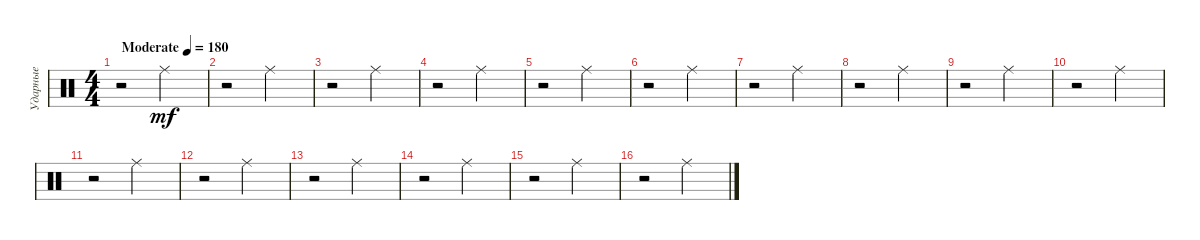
\track ("Ударные" "Ударные") {instrument percussion}
\staff {score}
\articulation defaults
\ts (4 4)
\tempo (180 "Moderate")
\clef neutral
\ks c
r.2{dy mf} "Ride (middle)".2 |
r.2 "Ride (middle)".2 |
r.2 "Ride (middle)".2 |
r.2 "Ride (middle)".2 |
r.2 "Ride (middle)".2 |
r.2 "Ride (middle)".2 |
r.2 "Ride (middle)".2 |
r.2 "Ride (middle)".2 |
r.2 "Ride (middle)".2 |
r.2 "Ride (middle)".2 |
r.2 "Ride (middle)".2 |
r.2 "Ride (middle)".2 |
r.2 "Ride (middle)".2 |
r.2 "Ride (middle)".2 |
r.2 "Ride (middle)".2 |
r.2 "Ride (middle)".2
